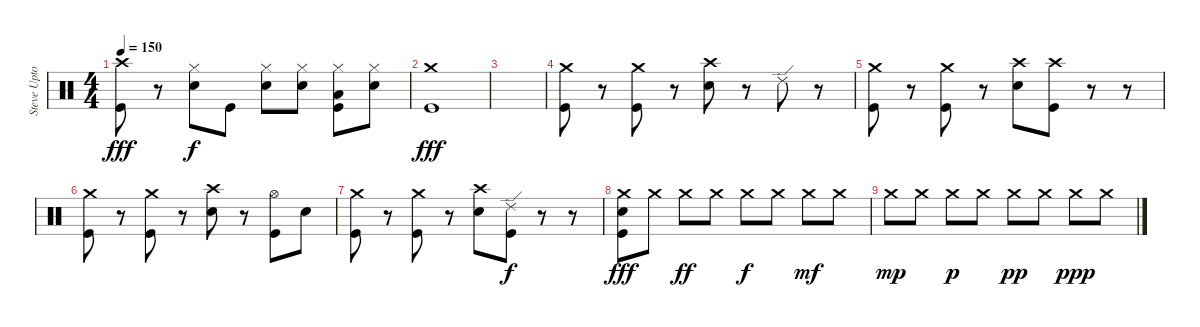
\track ("Steve Upton (drums)" "Steve Upto") {instrument percussion}
\staff {score}
\articulation defaults
\ts (4 4)
\tempo 150
\clef neutral
\ks c
("Crash high (hit)" "Kick (hit)").8{dy fff} r.8 ("Hi-Hat (closed)" "Electric Snare (hit)").8{dy f} "Kick (hit)".8 ("Hi-Hat (closed)" "Electric Snare (hit)").8 ("Hi-Hat (closed)" "Electric Snare (hit)").8 ("Hi-Hat (closed)" "Low Tom (hit)" "Kick (hit)").8 ("Hi-Hat (closed)" "Electric Snare (hit)").8 |
("Crash medium (hit)" "Kick (hit)").1{dy fff} |
|
("Crash medium (hit)" "Kick (hit)").8 r.8 ("Crash medium (hit)" "Kick (hit)").8 r.8 ("Crash high (hit)" "Electric Snare (hit)").8 r.8 "Ride (edge) 2".8 r.8 |
("Crash medium (hit)" "Kick (hit)").8 r.8 ("Crash medium (hit)" "Kick (hit)").8 r.8 ("Crash high (hit)" "Electric Snare (hit)").8 ("Crash high (hit)" "Kick (hit)").8 r.8 r.8 |
("Crash medium (hit)" "Kick (hit)").8 r.8 ("Crash medium (hit)" "Kick (hit)").8 r.8 ("Crash high (hit)" "Electric Snare (hit)").8 r.8 ("Hi-Hat (open)" "Kick (hit)").8 "Electric Snare (hit)".8 |
("Crash medium (hit)" "Kick (hit)").8 r.8 ("Crash medium (hit)" "Kick (hit)").8 r.8 ("Crash high (hit)" "Electric Snare (hit)").8 ("Ride (edge) 2" "Kick (hit)").8{dy f} r.8 r.8 |
("Crash medium (hit)" "Electric Snare (hit)" "Kick (hit)").8{dy fff} "Crash medium (hit)".8 "Crash medium (hit)".8{dy ff} "Crash medium (hit)".8 "Crash medium (hit)".8{dy f} "Crash medium (hit)".8 "Crash medium (hit)".8{dy mf} "Crash medium (hit)".8 |
"Crash medium (hit)".8{dy mp} "Crash medium (hit)".8 "Crash medium (hit)".8{dy p} "Crash medium (hit)".8 "Crash medium (hit)".8{dy pp} "Crash medium (hit)".8 "Crash medium (hit)".8{dy ppp} "Crash medium (hit)".8
